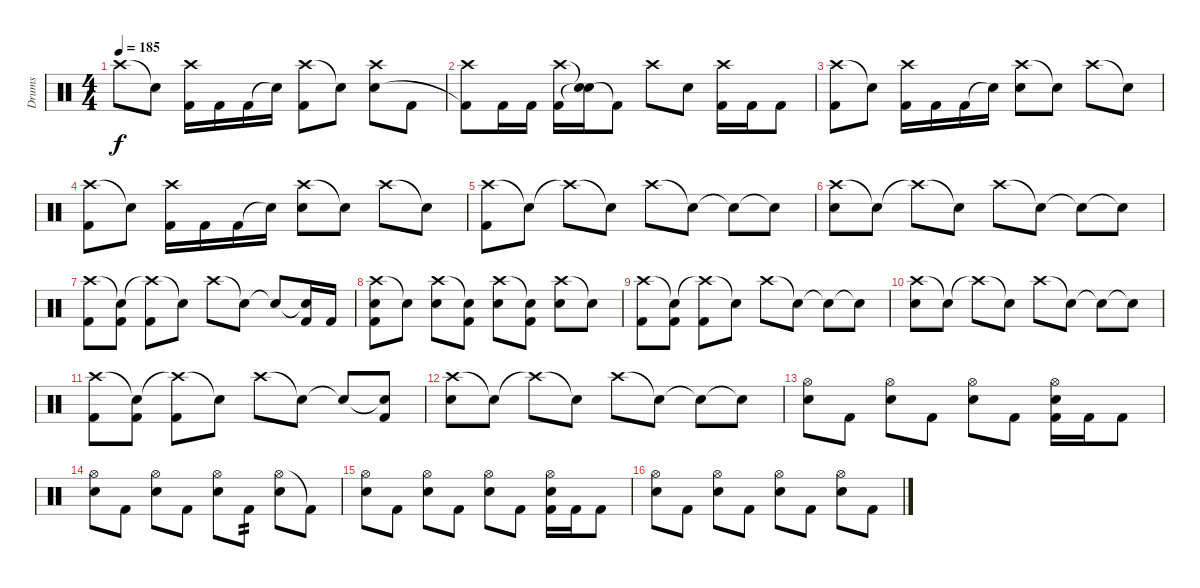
\track ("Drums" "Drums") {instrument percussion}
\staff {score}
\articulation defaults
\ts (4 4)
\tempo 185
\clef neutral
\ks c "Crash high (hit)".8{dy f} "Snare (hit)"{t}.8
("Crash high (hit)" "Kick (hit) 2").16 "Kick (hit) 2".16 "Kick (hit) 2".16 "Snare (hit)"{t}.16 ("Crash high (hit)" "Kick (hit) 2").8 "Snare (hit)"{t}.8 ("Crash high (hit)" "Electric Snare (hit)").8 "Kick (hit) 2".8 |
("Crash high (hit)" "Kick (hit) 2"{t}).8 "Kick (hit) 2".16 "Kick (hit) 2".16 ("Crash high (hit)" "Kick (hit) 2").16 ("Snare (hit)"{t} "Snare (hit)"{t}).16 "Kick (hit) 2"{t}.8 "Crash high (hit)".8 "Electric Snare (hit)".8 ("Crash high (hit)" "Kick (hit) 2").16 "Kick (hit) 2".16 "Kick (hit) 2".8 |
("Crash high (hit)" "Kick (hit) 2").8 "Snare (hit)"{t}.8 ("Crash high (hit)" "Kick (hit) 2").16 "Kick (hit) 2".16 "Kick (hit) 2".16 "Snare (hit)"{t}.16 ("Crash high (hit)" "Electric Snare (hit)").8 "Snare (hit)"{t}.8 "Crash high (hit)".8 "Snare (hit)"{t}.8 |
("Crash high (hit)" "Kick (hit) 2").8 "Snare (hit)"{t}.8 ("Crash high (hit)" "Kick (hit) 2").16 "Kick (hit) 2".16 "Kick (hit) 2".16 "Snare (hit)"{t}.16 ("Crash high (hit)" "Electric Snare (hit)").8 "Snare (hit)"{t}.8 "Crash high (hit)".8 "Snare (hit)"{t}.8 |
("Crash high (hit)" "Kick (hit) 2").8 "Snare (hit)"{t}.8 "Crash high (hit)"{t}.8 "Snare (hit)"{t}.8 "Crash high (hit)".8 "Snare (hit)"{t}.8 "Snare (hit)"{t}.8 "Snare (hit)"{t}.8 |
("Crash high (hit)" "Electric Snare (hit)").8 "Snare (hit)"{t}.8 "Crash high (hit)"{t}.8 "Snare (hit)"{t}.8 "Crash high (hit)".8 "Snare (hit)"{t}.8 "Snare (hit)"{t}.8 "Snare (hit)"{t}.8 |
("Crash high (hit)" "Kick (hit) 2").8 ("Snare (hit)"{t} "Kick (hit) 2").8 ("Crash high (hit)"{t} "Kick (hit) 2").8 "Snare (hit)"{t}.8 "Crash high (hit)".8 "Snare (hit)"{t}.8 "Snare (hit)"{t}.8 ("Snare (hit)"{t} "Kick (hit) 2").16 "Kick (hit) 2".16 |
("Crash high (hit)" "Electric Snare (hit)" "Kick (hit) 2").8 "Snare (hit)"{t}.8 ("Crash high (hit)" "Electric Snare (hit)").8 ("Snare (hit)"{t} "Kick (hit) 2").8 ("Crash high (hit)" "Electric Snare (hit)").8 ("Snare (hit)"{t} "Kick (hit) 2").8 ("Crash high (hit)" "Electric Snare (hit)").8 "Snare (hit)"{t}.8 |
("Crash high (hit)" "Kick (hit) 2").8 ("Snare (hit)"{t} "Kick (hit) 2").8 ("Crash high (hit)"{t} "Kick (hit) 2").8 "Snare (hit)"{t}.8 "Crash high (hit)".8 "Snare (hit)"{t}.8 "Snare (hit)"{t}.8 "Snare (hit)"{t}.8 |
("Crash high (hit)" "Electric Snare (hit)").8 "Snare (hit)"{t}.8 "Crash high (hit)"{t}.8 "Snare (hit)"{t}.8 "Crash high (hit)".8 "Snare (hit)"{t}.8 "Snare (hit)"{t}.8 "Snare (hit)"{t}.8 |
("Crash high (hit)" "Kick (hit) 2").8 ("Snare (hit)"{t} "Kick (hit) 2").8 ("Crash high (hit)"{t} "Kick (hit) 2").8 "Snare (hit)"{t}.8 "Crash high (hit)".8 "Snare (hit)"{t}.8 "Snare (hit)"{t}.8 ("Snare (hit)"{t} "Kick (hit) 2").8 |
("Crash high (hit)" "Electric Snare (hit)").8 "Snare (hit)"{t}.8 "Crash high (hit)"{t}.8 "Snare (hit)"{t}.8 "Crash high (hit)".8 "Snare (hit)"{t}.8 "Snare (hit)"{t}.8 "Snare (hit)"{t}.8 |
("Hi-Hat (open)" "Electric Snare (hit)").8 "Kick (hit) 2".8 ("Hi-Hat (open)" "Electric Snare (hit)").8 "Kick (hit) 2".8 ("Hi-Hat (open)" "Electric Snare (hit)").8 "Kick (hit) 2".8 ("Hi-Hat (open)" "Electric Snare (hit)" "Kick (hit) 2").16 "Kick (hit) 2".16 "Kick (hit) 2".8 |
("Hi-Hat (open)" "Electric Snare (hit)").8 "Kick (hit) 2".8 ("Hi-Hat (open)" "Electric Snare (hit)").8 "Kick (hit) 2".8 ("Hi-Hat (open)" "Electric Snare (hit)").8 "Kick (hit) 2".8{tp 2} ("Hi-Hat (open)" "Electric Snare (hit)").8 "Kick (hit) 2"{t}.8 |
("Hi-Hat (open)" "Electric Snare (hit)").8 "Kick (hit) 2".8 ("Hi-Hat (open)" "Electric Snare (hit)").8 "Kick (hit) 2".8 ("Hi-Hat (open)" "Electric Snare (hit)").8 "Kick (hit) 2".8 ("Hi-Hat (open)" "Electric Snare (hit)" "Kick (hit) 2").16 "Kick (hit) 2".16 "Kick (hit) 2".8 |
("Hi-Hat (open)" "Electric Snare (hit)").8 "Kick (hit) 2".8 ("Hi-Hat (open)" "Electric Snare (hit)").8 "Kick (hit) 2".8 ("Hi-Hat (open)" "Electric Snare (hit)").8 "Kick (hit) 2".8 ("Hi-Hat (open)" "Electric Snare (hit)").8 "Kick (hit) 2".8
